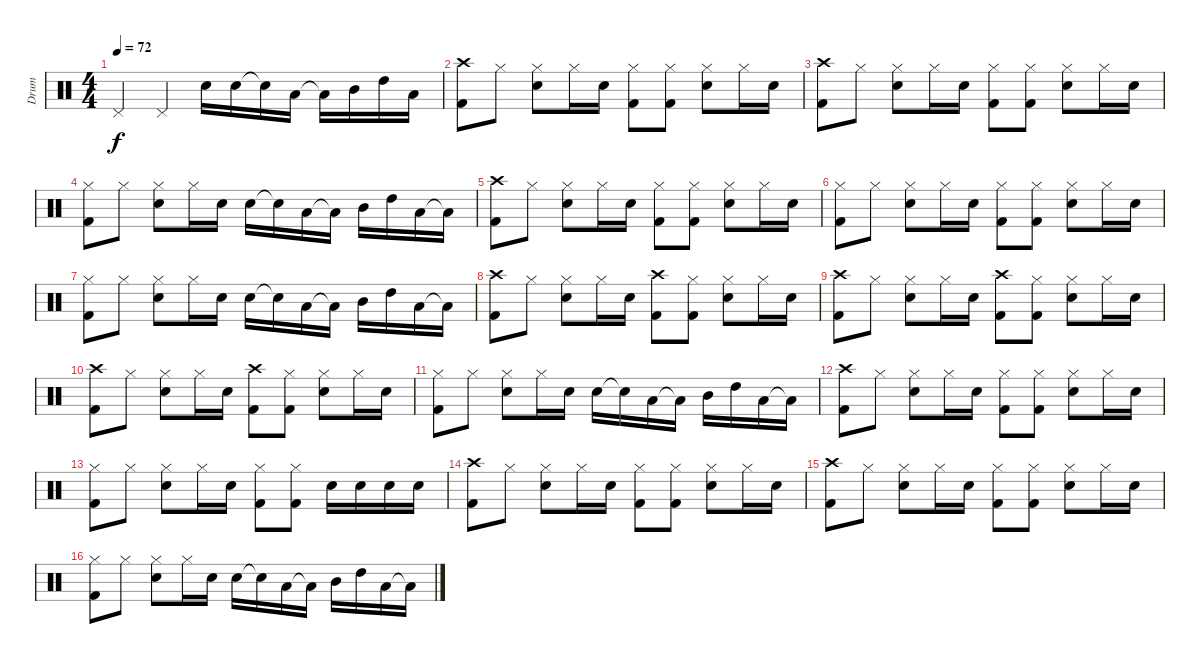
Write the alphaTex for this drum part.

\track ("Drum" "Drum") {instrument percussion}
\staff {score}
\articulation defaults
\ts (4 4)
\tempo 72
\clef neutral
\ks c "Pedal Hi-Hat (hit)".4{dy f} "Pedal Hi-Hat (hit)".4 "Electric Snare (hit)".16 "Electric Snare (hit)".16 "Electric Snare (hit)"{t}.16 "Low Tom (hit)".16 "Low Tom (hit)"{t}.16 "Mid Tom (hit)".16 "High Tom (hit)".16 "Low Tom (hit)".16
|
("Crash high (hit)" "Kick (hit) 2").8 "Hi-Hat (closed)".8 ("Hi-Hat (closed)" "Electric Snare (hit)").8 "Hi-Hat (closed)".16 "Electric Snare (hit)".16 ("Hi-Hat (closed)" "Kick (hit) 2").8 ("Hi-Hat (closed)" "Kick (hit) 2").8 ("Electric Snare (hit)" "Hi-Hat (closed)").8 "Hi-Hat (closed)".16 "Electric Snare (hit)".16 |
("Crash high (hit)" "Kick (hit) 2").8 "Hi-Hat (closed)".8 ("Hi-Hat (closed)" "Electric Snare (hit)").8 "Hi-Hat (closed)".16 "Electric Snare (hit)".16 ("Hi-Hat (closed)" "Kick (hit) 2").8 ("Hi-Hat (closed)" "Kick (hit) 2").8 ("Electric Snare (hit)" "Hi-Hat (closed)").8 "Hi-Hat (closed)".16 "Electric Snare (hit)".16 |
("Hi-Hat (closed)" "Kick (hit) 2").8 "Hi-Hat (closed)".8 ("Hi-Hat (closed)" "Electric Snare (hit)").8 "Hi-Hat (closed)".16 "Electric Snare (hit)".16 "Electric Snare (hit)".16 "Electric Snare (hit)"{t}.16 "Low Tom (hit)".16 "Low Tom (hit)"{t}.16 "Mid Tom (hit)".16 "High Tom (hit)".16 "Low Tom (hit)".16 "Low Tom (hit)"{t}.16 |
("Crash high (hit)" "Kick (hit) 2").8 "Hi-Hat (closed)".8 ("Hi-Hat (closed)" "Electric Snare (hit)").8 "Hi-Hat (closed)".16 "Electric Snare (hit)".16 ("Hi-Hat (closed)" "Kick (hit) 2").8 ("Hi-Hat (closed)" "Kick (hit) 2").8 ("Electric Snare (hit)" "Hi-Hat (closed)").8 "Hi-Hat (closed)".16 "Electric Snare (hit)".16 |
("Hi-Hat (closed)" "Kick (hit) 2").8 "Hi-Hat (closed)".8 ("Hi-Hat (closed)" "Electric Snare (hit)").8 "Hi-Hat (closed)".16 "Electric Snare (hit)".16 ("Hi-Hat (closed)" "Kick (hit) 2").8 ("Hi-Hat (closed)" "Kick (hit) 2").8 ("Electric Snare (hit)" "Hi-Hat (closed)").8 "Hi-Hat (closed)".16 "Electric Snare (hit)".16 |
("Hi-Hat (closed)" "Kick (hit) 2").8 "Hi-Hat (closed)".8 ("Hi-Hat (closed)" "Electric Snare (hit)").8 "Hi-Hat (closed)".16 "Electric Snare (hit)".16 "Electric Snare (hit)".16 "Electric Snare (hit)"{t}.16 "Low Tom (hit)".16 "Low Tom (hit)"{t}.16 "Mid Tom (hit)".16 "High Tom (hit)".16 "Low Tom (hit)".16 "Low Tom (hit)"{t}.16 |
("Crash high (hit)" "Kick (hit) 2").8 "Hi-Hat (closed)".8 ("Hi-Hat (closed)" "Electric Snare (hit)").8 "Hi-Hat (closed)".16 "Electric Snare (hit)".16 ("Crash high (hit)" "Kick (hit) 2").8 ("Hi-Hat (closed)" "Kick (hit) 2").8 ("Electric Snare (hit)" "Hi-Hat (closed)").8 "Hi-Hat (closed)".16 "Electric Snare (hit)".16 |
("Crash high (hit)" "Kick (hit) 2").8 "Hi-Hat (closed)".8 ("Hi-Hat (closed)" "Electric Snare (hit)").8 "Hi-Hat (closed)".16 "Electric Snare (hit)".16 ("Crash high (hit)" "Kick (hit) 2").8 ("Hi-Hat (closed)" "Kick (hit) 2").8 ("Electric Snare (hit)" "Hi-Hat (closed)").8 "Hi-Hat (closed)".16 "Electric Snare (hit)".16 |
("Crash high (hit)" "Kick (hit) 2").8 "Hi-Hat (closed)".8 ("Hi-Hat (closed)" "Electric Snare (hit)").8 "Hi-Hat (closed)".16 "Electric Snare (hit)".16 ("Crash high (hit)" "Kick (hit) 2").8 ("Hi-Hat (closed)" "Kick (hit) 2").8 ("Electric Snare (hit)" "Hi-Hat (closed)").8 "Hi-Hat (closed)".16 "Electric Snare (hit)".16 |
("Hi-Hat (closed)" "Kick (hit) 2").8 "Hi-Hat (closed)".8 ("Hi-Hat (closed)" "Electric Snare (hit)").8 "Hi-Hat (closed)".16 "Electric Snare (hit)".16 "Electric Snare (hit)".16 "Electric Snare (hit)"{t}.16 "Low Tom (hit)".16 "Low Tom (hit)"{t}.16 "Mid Tom (hit)".16 "High Tom (hit)".16 "Low Tom (hit)".16 "Low Tom (hit)"{t}.16 |
("Crash high (hit)" "Kick (hit) 2").8 "Hi-Hat (closed)".8 ("Hi-Hat (closed)" "Electric Snare (hit)").8 "Hi-Hat (closed)".16 "Electric Snare (hit)".16 ("Hi-Hat (closed)" "Kick (hit) 2").8 ("Hi-Hat (closed)" "Kick (hit) 2").8 ("Electric Snare (hit)" "Hi-Hat (closed)").8 "Hi-Hat (closed)".16 "Electric Snare (hit)".16 |
("Hi-Hat (closed)" "Kick (hit) 2").8 "Hi-Hat (closed)".8 ("Hi-Hat (closed)" "Electric Snare (hit)").8 "Hi-Hat (closed)".16 "Electric Snare (hit)".16 ("Hi-Hat (closed)" "Kick (hit) 2").8 ("Hi-Hat (closed)" "Kick (hit) 2").8 "Electric Snare (hit)".16 "Electric Snare (hit)".16 "Electric Snare (hit)".16 "Electric Snare (hit)".16 |
("Crash high (hit)" "Kick (hit) 2").8 "Hi-Hat (closed)".8 ("Hi-Hat (closed)" "Electric Snare (hit)").8 "Hi-Hat (closed)".16 "Electric Snare (hit)".16 ("Hi-Hat (closed)" "Kick (hit) 2").8 ("Hi-Hat (closed)" "Kick (hit) 2").8 ("Electric Snare (hit)" "Hi-Hat (closed)").8 "Hi-Hat (closed)".16 "Electric Snare (hit)".16 |
("Crash high (hit)" "Kick (hit) 2").8 "Hi-Hat (closed)".8 ("Hi-Hat (closed)" "Electric Snare (hit)").8 "Hi-Hat (closed)".16 "Electric Snare (hit)".16 ("Hi-Hat (closed)" "Kick (hit) 2").8 ("Hi-Hat (closed)" "Kick (hit) 2").8 ("Electric Snare (hit)" "Hi-Hat (closed)").8 "Hi-Hat (closed)".16 "Electric Snare (hit)".16 |
("Hi-Hat (closed)" "Kick (hit) 2").8 "Hi-Hat (closed)".8 ("Hi-Hat (closed)" "Electric Snare (hit)").8 "Hi-Hat (closed)".16 "Electric Snare (hit)".16 "Electric Snare (hit)".16 "Electric Snare (hit)"{t}.16 "Low Tom (hit)".16 "Low Tom (hit)"{t}.16 "Mid Tom (hit)".16 "High Tom (hit)".16 "Low Tom (hit)".16 "Low Tom (hit)"{t}.16
